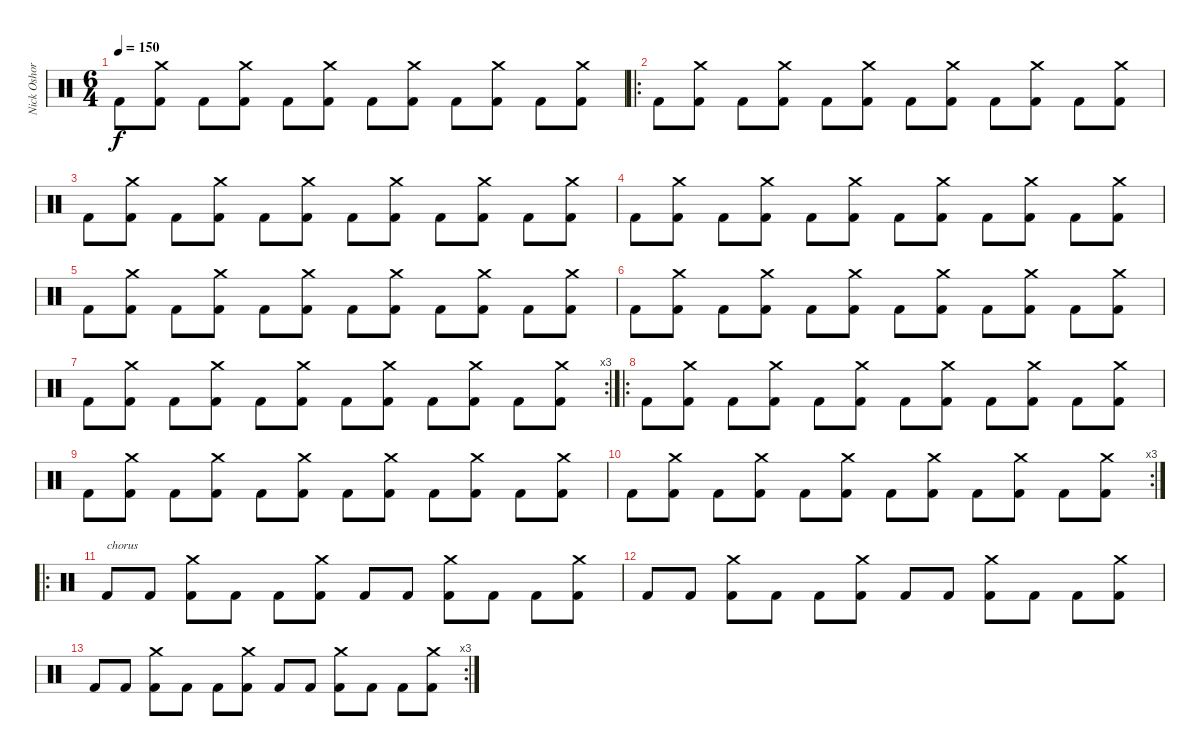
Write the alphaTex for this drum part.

\track ("Nick Oshori" "Nick Oshor") {instrument percussion}
\staff {score}
\articulation defaults
\ts (6 4)
\tempo 150
\clef neutral
\ks c "Kick (hit) 2".8{dy f}
("Crash medium (hit)" "Kick (hit) 2").8 "Kick (hit) 2".8 ("Crash medium (hit)" "Kick (hit) 2").8 "Kick (hit) 2".8 ("Crash medium (hit)" "Kick (hit) 2").8 "Kick (hit) 2".8 ("Crash medium (hit)" "Kick (hit) 2").8 "Kick (hit) 2".8 ("Crash medium (hit)" "Kick (hit) 2").8 "Kick (hit) 2".8 ("Crash medium (hit)" "Kick (hit) 2").8 |
\ro "Kick (hit) 2".8
("Crash medium (hit)" "Kick (hit) 2").8 "Kick (hit) 2".8 ("Crash medium (hit)" "Kick (hit) 2").8 "Kick (hit) 2".8 ("Crash medium (hit)" "Kick (hit) 2").8 "Kick (hit) 2".8 ("Crash medium (hit)" "Kick (hit) 2").8 "Kick (hit) 2".8 ("Crash medium (hit)" "Kick (hit) 2").8 "Kick (hit) 2".8 ("Crash medium (hit)" "Kick (hit) 2").8 |
"Kick (hit) 2".8 ("Crash medium (hit)" "Kick (hit) 2").8 "Kick (hit) 2".8 ("Crash medium (hit)" "Kick (hit) 2").8 "Kick (hit) 2".8 ("Crash medium (hit)" "Kick (hit) 2").8 "Kick (hit) 2".8 ("Crash medium (hit)" "Kick (hit) 2").8 "Kick (hit) 2".8 ("Crash medium (hit)" "Kick (hit) 2").8 "Kick (hit) 2".8 ("Crash medium (hit)" "Kick (hit) 2").8 |
"Kick (hit) 2".8 ("Crash medium (hit)" "Kick (hit) 2").8 "Kick (hit) 2".8 ("Crash medium (hit)" "Kick (hit) 2").8 "Kick (hit) 2".8 ("Crash medium (hit)" "Kick (hit) 2").8 "Kick (hit) 2".8 ("Crash medium (hit)" "Kick (hit) 2").8 "Kick (hit) 2".8 ("Crash medium (hit)" "Kick (hit) 2").8 "Kick (hit) 2".8 ("Crash medium (hit)" "Kick (hit) 2").8 |
"Kick (hit) 2".8 ("Crash medium (hit)" "Kick (hit) 2").8 "Kick (hit) 2".8 ("Crash medium (hit)" "Kick (hit) 2").8 "Kick (hit) 2".8 ("Crash medium (hit)" "Kick (hit) 2").8 "Kick (hit) 2".8 ("Crash medium (hit)" "Kick (hit) 2").8 "Kick (hit) 2".8 ("Crash medium (hit)" "Kick (hit) 2").8 "Kick (hit) 2".8 ("Crash medium (hit)" "Kick (hit) 2").8 |
"Kick (hit) 2".8 ("Crash medium (hit)" "Kick (hit) 2").8 "Kick (hit) 2".8 ("Crash medium (hit)" "Kick (hit) 2").8 "Kick (hit) 2".8 ("Crash medium (hit)" "Kick (hit) 2").8 "Kick (hit) 2".8 ("Crash medium (hit)" "Kick (hit) 2").8 "Kick (hit) 2".8 ("Crash medium (hit)" "Kick (hit) 2").8 "Kick (hit) 2".8 ("Crash medium (hit)" "Kick (hit) 2").8 |
\rc 3 "Kick (hit) 2".8
("Crash medium (hit)" "Kick (hit) 2").8 "Kick (hit) 2".8 ("Crash medium (hit)" "Kick (hit) 2").8 "Kick (hit) 2".8 ("Crash medium (hit)" "Kick (hit) 2").8 "Kick (hit) 2".8 ("Crash medium (hit)" "Kick (hit) 2").8 "Kick (hit) 2".8 ("Crash medium (hit)" "Kick (hit) 2").8 "Kick (hit) 2".8 ("Crash medium (hit)" "Kick (hit) 2").8 |
\ro "Kick (hit) 2".8
("Crash medium (hit)" "Kick (hit) 2").8 "Kick (hit) 2".8 ("Crash medium (hit)" "Kick (hit) 2").8 "Kick (hit) 2".8 ("Crash medium (hit)" "Kick (hit) 2").8 "Kick (hit) 2".8 ("Crash medium (hit)" "Kick (hit) 2").8 "Kick (hit) 2".8 ("Crash medium (hit)" "Kick (hit) 2").8 "Kick (hit) 2".8 ("Crash medium (hit)" "Kick (hit) 2").8 |
"Kick (hit) 2".8 ("Crash medium (hit)" "Kick (hit) 2").8 "Kick (hit) 2".8 ("Crash medium (hit)" "Kick (hit) 2").8 "Kick (hit) 2".8 ("Crash medium (hit)" "Kick (hit) 2").8 "Kick (hit) 2".8 ("Crash medium (hit)" "Kick (hit) 2").8 "Kick (hit) 2".8 ("Crash medium (hit)" "Kick (hit) 2").8 "Kick (hit) 2".8 ("Crash medium (hit)" "Kick (hit) 2").8 |
\rc 3 "Kick (hit) 2".8
("Crash medium (hit)" "Kick (hit) 2").8 "Kick (hit) 2".8 ("Crash medium (hit)" "Kick (hit) 2").8 "Kick (hit) 2".8 ("Crash medium (hit)" "Kick (hit) 2").8 "Kick (hit) 2".8 ("Crash medium (hit)" "Kick (hit) 2").8 "Kick (hit) 2".8 ("Crash medium (hit)" "Kick (hit) 2").8 "Kick (hit) 2".8 ("Crash medium (hit)" "Kick (hit) 2").8 |
\ro "Kick (hit) 2".8{txt "chorus"} "Kick (hit) 2".8
("Crash medium (hit)" "Kick (hit) 2").8 "Kick (hit) 2".8 "Kick (hit) 2".8 ("Crash medium (hit)" "Kick (hit) 2").8 "Kick (hit) 2".8 "Kick (hit) 2".8 ("Crash medium (hit)" "Kick (hit) 2").8 "Kick (hit) 2".8 "Kick (hit) 2".8 ("Crash medium (hit)" "Kick (hit) 2").8 |
"Kick (hit) 2".8 "Kick (hit) 2".8 ("Crash medium (hit)" "Kick (hit) 2").8 "Kick (hit) 2".8 "Kick (hit) 2".8 ("Crash medium (hit)" "Kick (hit) 2").8 "Kick (hit) 2".8 "Kick (hit) 2".8 ("Crash medium (hit)" "Kick (hit) 2").8 "Kick (hit) 2".8 "Kick (hit) 2".8 ("Crash medium (hit)" "Kick (hit) 2").8 |
\rc 3 "Kick (hit) 2".8 "Kick (hit) 2".8
("Crash medium (hit)" "Kick (hit) 2").8 "Kick (hit) 2".8 "Kick (hit) 2".8 ("Crash medium (hit)" "Kick (hit) 2").8 "Kick (hit) 2".8 "Kick (hit) 2".8 ("Crash medium (hit)" "Kick (hit) 2").8 "Kick (hit) 2".8 "Kick (hit) 2".8 ("Crash medium (hit)" "Kick (hit) 2").8
